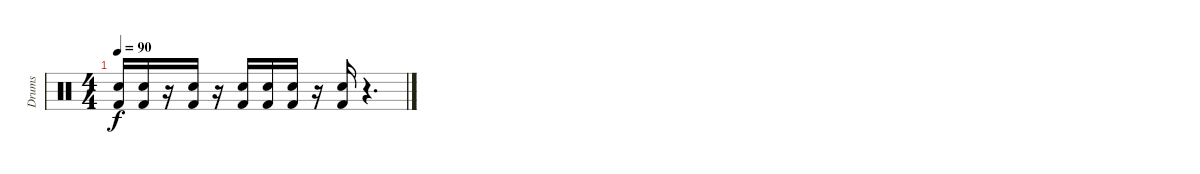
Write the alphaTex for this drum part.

\track ("Drums" "Drums") {instrument percussion}
\staff {score}
\articulation defaults
\ts (4 4)
\tempo 90
\clef neutral
\ks c
("Electric Snare (hit)" "Kick (hit) 2").16{dy f} ("Electric Snare (hit)" "Kick (hit) 2").16 r.16 ("Electric Snare (hit)" "Kick (hit) 2").16 r.16 ("Electric Snare (hit)" "Kick (hit) 2").16 ("Electric Snare (hit)" "Kick (hit) 2").16 ("Electric Snare (hit)" "Kick (hit) 2").16 r.16 ("Electric Snare (hit)" "Kick (hit) 2").16 r.4{d}
